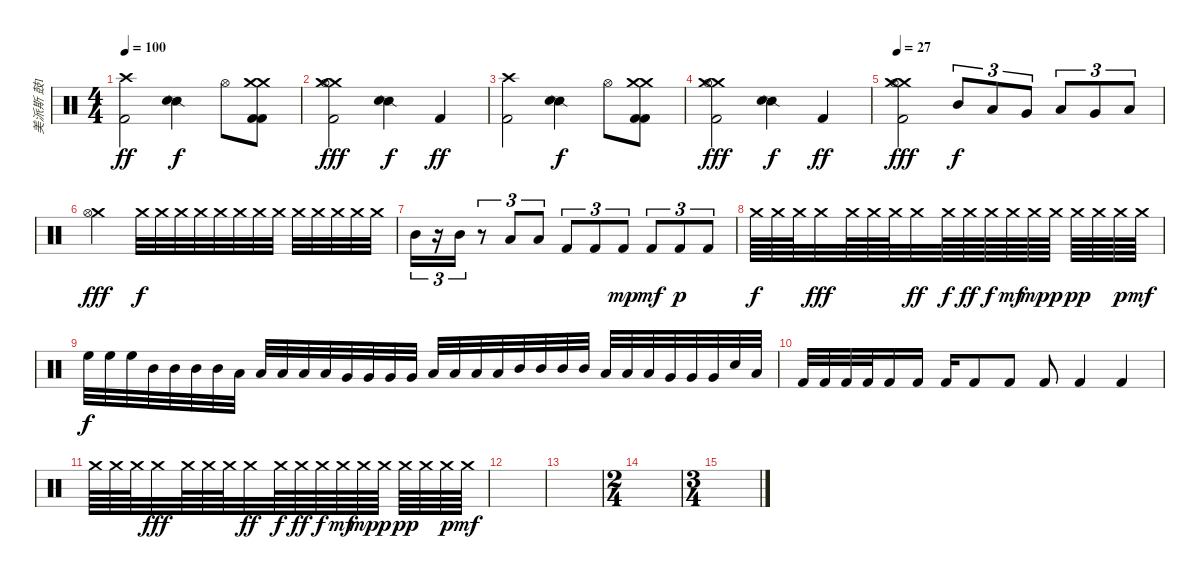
\track ("美派斯 鼓1" "美派斯 鼓1") {instrument percussion}
\staff {score}
\articulation defaults
\ts (4 4)
\tempo 100
\clef neutral
\ks c
("Crash high (hit)" "Kick (hit) 2").2{dy ff} ("Snare (side stick) 2" "Snare (hit) 2").4{dy f} "Hi-Hat (open)".8 ("Crash medium (hit)" "Crash medium (hit)" "Kick (hit) 2" "Kick (hit) 2").8 |
("Crash medium (hit)" "Crash medium (hit)" "Kick (hit) 2" "Hi-Hat (open)").2{dy fff} ("Snare (side stick) 2" "Snare (hit) 2").4{dy f} "Kick (hit) 2".4{dy ff} |
("Crash high (hit)" "Kick (hit) 2").2 ("Snare (side stick) 2" "Snare (hit) 2").4{dy f} "Hi-Hat (open)".8 ("Crash medium (hit)" "Crash medium (hit)" "Kick (hit) 2" "Kick (hit) 2").8 |
("Crash medium (hit)" "Crash medium (hit)" "Kick (hit) 2" "Hi-Hat (open)").2{dy fff} ("Snare (side stick) 2" "Snare (hit) 2").4{dy f} "Kick (hit) 2".4{dy ff} |
\tempo 27
("Crash medium (hit)" "Crash medium (hit)" "Kick (hit) 2" "Hi-Hat (open)").2{dy fff} "Mid Tom (hit)".8{tu (3 2) dy f} "Low Tom (hit)".8{tu (3 2)} "Very Low Tom (hit)".8{tu (3 2)} "Low Tom (hit)".8{tu (3 2)} "Very Low Tom (hit)".8{tu (3 2)} "Low Floor Tom (hit)".8{tu (3 2)} |
("Crash medium (hit)" "Hi-Hat (open)").2{dy fff} "Crash medium (hit)".32{dy f} "Crash medium (hit)".32 "Crash medium (hit)".32 "Crash medium (hit)".32 "Crash medium (hit)".32 "Crash medium (hit)".32 "Crash medium (hit)".32 "Crash medium (hit)".32 "Crash medium (hit)".32 "Crash medium (hit)".32 "Crash medium (hit)".32 "Crash medium (hit)".32 "Crash medium (hit)".32 |
"Mid Tom (hit)".16{tu (3 2)} r.16{tu (3 2)} "Mid Tom (hit)".16{tu (3 2)} r.8{tu (3 2)} "Low Tom (hit)".8{tu (3 2)} "Low Tom (hit)".8{tu (3 2)} "Kick (hit) 2".8{tu (3 2)} "Kick (hit) 2".8{tu (3 2)} "Kick (hit) 2".8{tu (3 2) dy mp} "Kick (hit) 2".8{tu (3 2) dy mf} "Kick (hit) 2".8{tu (3 2) dy p} "Kick (hit) 2".8{tu (3 2)} |
"Crash medium (hit)".64{dy f} "Crash medium (hit)".64 "Crash medium (hit)".64 "Crash medium (hit)".32{dy fff} "Crash medium (hit)".64 "Crash medium (hit)".64 "Crash medium (hit)".64 "Crash medium (hit)".32{dy ff} "Crash medium (hit)".64{dy f} "Crash medium (hit)".64{dy ff} "Crash medium (hit)".64{dy f} "Crash medium (hit)".64{dy mf} "Crash medium (hit)".64{dy mp} "Crash medium (hit)".64{dy p} "Crash medium (hit)".64{dy pp} "Crash medium (hit)".64 "Crash medium (hit)".64{dy p} "Crash medium (hit)".64{dy mf} |
"High Floor Tom (hit)".32{dy f} "High Floor Tom (hit)".32 "High Floor Tom (hit)".32 "Mid Tom (hit)".32 "Mid Tom (hit)".32 "Mid Tom (hit)".32 "Mid Tom (hit)".32 "Low Tom (hit)".32 "Low Tom (hit)".32 "Low Tom (hit)".32 "Low Tom (hit)".32 "Low Tom (hit)".32 "Very Low Tom (hit)".32 "Very Low Tom (hit)".32 "Very Low Tom (hit)".32 "Very Low Tom (hit)".32 "Low Tom (hit)".32 "Low Tom (hit)".32 "Low Tom (hit)".32 "Low Tom (hit)".32 "Mid Tom (hit)".32 "Mid Tom (hit)".32 "Mid Tom (hit)".32 "Mid Tom (hit)".32 "Low Tom (hit)".32 "Low Tom (hit)".32 "Low Tom (hit)".32 "Very Low Tom (hit)".32 "Very Low Tom (hit)".32 "Very Low Tom (hit)".32 "Snare (hit)".32 "Low Floor Tom (hit)".32 |
"Kick (hit) 2".32 "Kick (hit) 2".32 "Kick (hit) 2".32 "Kick (hit) 2".32 "Kick (hit) 2".16 "Kick (hit) 2".16 "Kick (hit) 2".16 "Kick (hit) 2".8 "Kick (hit) 2".8 "Kick (hit) 2".8 "Kick (hit) 2".4 "Kick (hit) 2".4 |
"Crash medium (hit)".64 "Crash medium (hit)".64 "Crash medium (hit)".64 "Crash medium (hit)".32{dy fff} "Crash medium (hit)".64 "Crash medium (hit)".64 "Crash medium (hit)".64 "Crash medium (hit)".32{dy ff} "Crash medium (hit)".64{dy f} "Crash medium (hit)".64{dy ff} "Crash medium (hit)".64{dy f} "Crash medium (hit)".64{dy mf} "Crash medium (hit)".64{dy mp} "Crash medium (hit)".64{dy p} "Crash medium (hit)".64{dy pp} "Crash medium (hit)".64 "Crash medium (hit)".64{dy p} "Crash medium (hit)".64{dy mf} |
|
|
\ts (2 4)
|
\ts (3 4)
